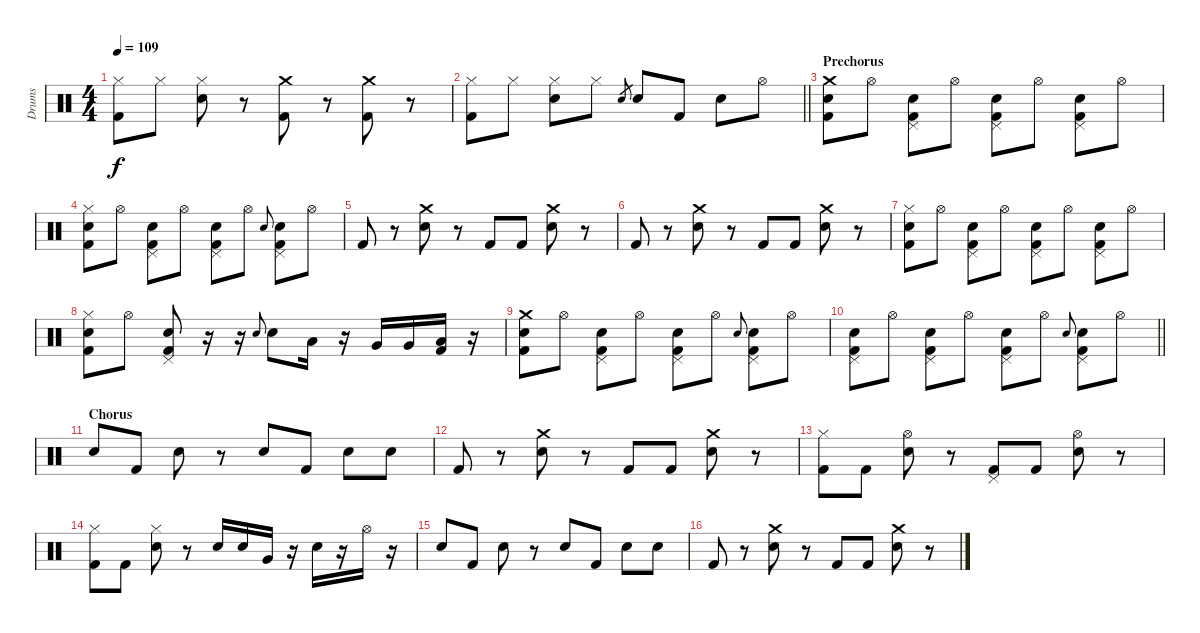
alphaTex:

\track ("Drums" "Drums") {instrument percussion}
\staff {score}
\articulation defaults
\ts (4 4)
\tempo 109
\clef neutral
\ks c
("Hi-Hat (closed)" "Kick (hit) 2").8{dy f} "Hi-Hat (closed)".8 ("Hi-Hat (closed)" "Snare (hit) 2").8 r.8 ("Crash medium (hit)" "Kick (hit) 2").8 r.8 ("Crash medium (hit)" "Kick (hit) 2").8 r.8 |
\barLineRight lightlight
("Hi-Hat (closed)" "Kick (hit) 2").8 "Hi-Hat (closed)".8 ("Hi-Hat (closed)" "Snare (hit) 2").8 "Hi-Hat (closed)".8 "Snare (hit) 2".8{gr} "Snare (hit) 2".8 "Kick (hit) 2".8 "Snare (hit) 2".8 "Hi-Hat (open)".8 |
\section ("" "Prechorus")
("Crash medium (hit)" "Snare (hit) 2" "Kick (hit) 2").8 "Hi-Hat (open)".8 ("Pedal Hi-Hat (hit)" "Snare (hit) 2" "Kick (hit) 2").8 "Hi-Hat (open)".8 ("Pedal Hi-Hat (hit)" "Snare (hit) 2" "Kick (hit) 2").8 "Hi-Hat (open)".8 ("Pedal Hi-Hat (hit)" "Snare (hit) 2" "Kick (hit) 2").8 "Hi-Hat (open)".8 |
("Hi-Hat (closed)" "Snare (hit) 2" "Kick (hit) 2").8 "Hi-Hat (open)".8 ("Pedal Hi-Hat (hit)" "Snare (hit) 2" "Kick (hit) 2").8 "Hi-Hat (open)".8 ("Pedal Hi-Hat (hit)" "Snare (hit) 2" "Kick (hit) 2").8 "Hi-Hat (open)".8 "Snare (hit) 2".8{gr onbeat} ("Pedal Hi-Hat (hit)" "Snare (hit) 2" "Kick (hit) 2").8 "Hi-Hat (open)".8 |
"Kick (hit) 2".8 r.8 ("Crash medium (hit)" "Snare (hit) 2").8 r.8 "Kick (hit) 2".8 "Kick (hit) 2".8 ("Crash medium (hit)" "Snare (hit) 2").8 r.8 |
"Kick (hit) 2".8 r.8 ("Crash medium (hit)" "Snare (hit) 2").8 r.8 "Kick (hit) 2".8 "Kick (hit) 2".8 ("Crash medium (hit)" "Snare (hit) 2").8 r.8 |
("Hi-Hat (closed)" "Snare (hit) 2" "Kick (hit) 2").8 "Hi-Hat (open)".8 ("Pedal Hi-Hat (hit)" "Snare (hit) 2" "Kick (hit) 2").8 "Hi-Hat (open)".8 ("Pedal Hi-Hat (hit)" "Snare (hit) 2" "Kick (hit) 2").8 "Hi-Hat (open)".8 ("Pedal Hi-Hat (hit)" "Snare (hit) 2" "Kick (hit) 2").8 "Hi-Hat (open)".8 |
("Hi-Hat (closed)" "Snare (hit) 2" "Kick (hit) 2").8 "Hi-Hat (open)".8 ("Pedal Hi-Hat (hit)" "Snare (hit) 2" "Kick (hit) 2").8 r.16 r.16 "Snare (hit) 2".8{gr onbeat} "Snare (hit) 2".8 "Low Tom (hit)".16 r.16 "Very Low Tom (hit)".16 "Very Low Tom (hit)".16 ("Low Floor Tom (hit)" "Kick (hit) 2").16 r.16 |
("Crash medium (hit)" "Snare (hit) 2" "Kick (hit) 2").8 "Hi-Hat (open)".8 ("Pedal Hi-Hat (hit)" "Snare (hit) 2" "Kick (hit) 2").8 "Hi-Hat (open)".8 ("Pedal Hi-Hat (hit)" "Snare (hit) 2" "Kick (hit) 2").8 "Hi-Hat (open)".8 "Snare (hit) 2".8{gr onbeat} ("Pedal Hi-Hat (hit)" "Snare (hit) 2" "Kick (hit) 2").8 "Hi-Hat (open)".8 |
\barLineRight lightlight
("Pedal Hi-Hat (hit)" "Snare (hit) 2" "Kick (hit) 2").8 "Hi-Hat (open)".8 ("Pedal Hi-Hat (hit)" "Snare (hit) 2" "Kick (hit) 2").8 "Hi-Hat (open)".8 ("Pedal Hi-Hat (hit)" "Snare (hit) 2" "Kick (hit) 2").8 "Hi-Hat (open)".8 "Snare (hit) 2".8{gr onbeat} ("Pedal Hi-Hat (hit)" "Snare (hit) 2" "Kick (hit) 2").8 "Hi-Hat (open)".8 |
\section ("" "Chorus")
"Snare (hit) 2".8 "Kick (hit) 2".8 "Snare (hit) 2".8 r.8 "Snare (hit) 2".8 "Kick (hit) 2".8 "Snare (hit) 2".8 "Snare (hit) 2".8 |
"Kick (hit) 2".8 r.8 ("Crash medium (hit)" "Snare (hit) 2").8 r.8 "Kick (hit) 2".8 "Kick (hit) 2".8 ("Crash medium (hit)" "Snare (hit) 2").8 r.8 |
("Hi-Hat (closed)" "Kick (hit) 2").8 "Kick (hit) 2".8 ("Hi-Hat (open)" "Snare (hit) 2").8 r.8 ("Pedal Hi-Hat (hit)" "Kick (hit) 2").8 "Kick (hit) 2".8 ("Hi-Hat (open)" "Snare (hit) 2").8 r.8 |
("Hi-Hat (closed)" "Kick (hit) 2").8 "Kick (hit) 2".8 ("Hi-Hat (closed)" "Snare (hit) 2").8 r.8 "Snare (hit) 2".16 "Snare (hit) 2".16 "Very Low Tom (hit)".16 r.16 "Snare (hit) 2".16 r.16 "Hi-Hat (open)".16 r.16 |
"Snare (hit) 2".8 "Kick (hit) 2".8 "Snare (hit) 2".8 r.8 "Snare (hit) 2".8 "Kick (hit) 2".8 "Snare (hit) 2".8 "Snare (hit) 2".8 |
"Kick (hit) 2".8 r.8 ("Crash medium (hit)" "Snare (hit) 2").8 r.8 "Kick (hit) 2".8 "Kick (hit) 2".8 ("Crash medium (hit)" "Snare (hit) 2").8 r.8
